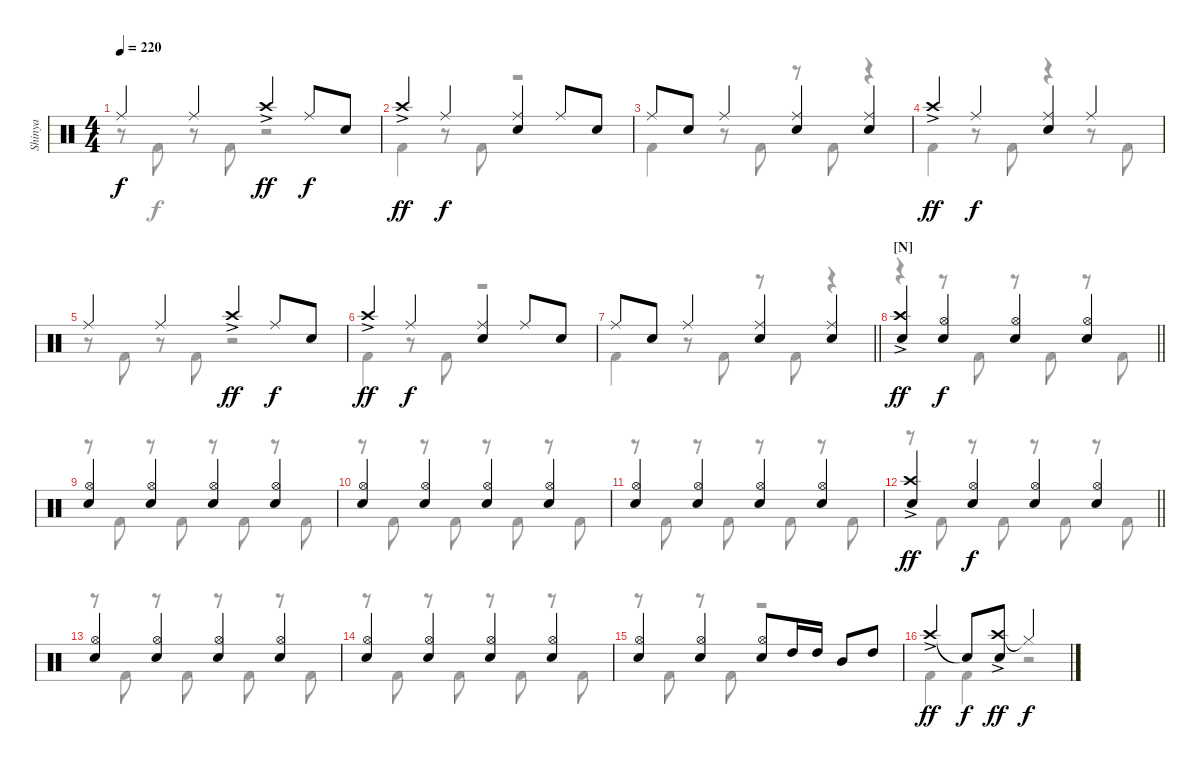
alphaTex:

\track ("Shinya" "Shinya") {instrument percussion}
\staff {score}
\articulation defaults
\voice
\ts (4 4)
\tempo 220
\clef neutral
\ks c "Ride (middle)".4{dy f} "Ride (middle)".4 "Crash high (hit)"{ac}.4{dy ff} "Ride (middle)".8{dy f} "Snare (hit) 2".8
|
"Crash high (hit)"{ac}.4{dy ff} "Ride (middle)".4{dy f} ("Ride (middle)" "Snare (hit) 2").4 "Ride (middle)".8 "Snare (hit) 2".8 |
"Ride (middle)".8 "Snare (hit) 2".8 "Ride (middle)".4 ("Ride (middle)" "Snare (hit) 2").4 ("Ride (middle)" "Snare (hit) 2").4 |
"Crash high (hit)"{ac}.4{dy ff} "Ride (middle)".4{dy f} ("Ride (middle)" "Snare (hit) 2").4 "Ride (middle)".4 |
"Ride (middle)".4 "Ride (middle)".4 "Crash high (hit)"{ac}.4{dy ff} "Ride (middle)".8{dy f} "Snare (hit) 2".8 |
"Crash high (hit)"{ac}.4{dy ff} "Ride (middle)".4{dy f} ("Ride (middle)" "Snare (hit) 2").4 "Ride (middle)".8 "Snare (hit) 2".8 |
\barLineRight lightlight "Ride (middle)".8 "Snare (hit) 2".8 "Ride (middle)".4
("Ride (middle)" "Snare (hit) 2").4 ("Ride (middle)" "Snare (hit) 2").4 |
\section ("" "[N]")
\barLineRight lightlight
("Crash high (hit)"{ac} "Snare (hit) 2").4{dy ff} ("Hi-Hat (open)" "Snare (hit) 2").4{dy f} ("Hi-Hat (open)" "Snare (hit) 2").4 ("Hi-Hat (open)" "Snare (hit) 2").4 |
\section ("" "")
("Hi-Hat (open)" "Snare (hit) 2").4 ("Hi-Hat (open)" "Snare (hit) 2").4 ("Hi-Hat (open)" "Snare (hit) 2").4 ("Hi-Hat (open)" "Snare (hit) 2").4 |
("Hi-Hat (open)" "Snare (hit) 2").4 ("Hi-Hat (open)" "Snare (hit) 2").4 ("Hi-Hat (open)" "Snare (hit) 2").4 ("Hi-Hat (open)" "Snare (hit) 2").4 |
("Hi-Hat (open)" "Snare (hit) 2").4 ("Hi-Hat (open)" "Snare (hit) 2").4 ("Hi-Hat (open)" "Snare (hit) 2").4 ("Hi-Hat (open)" "Snare (hit) 2").4 |
\barLineRight lightlight
("Crash high (hit)"{ac} "Snare (hit) 2").4{dy ff} ("Hi-Hat (open)" "Snare (hit) 2").4{dy f} ("Hi-Hat (open)" "Snare (hit) 2").4 ("Hi-Hat (open)" "Snare (hit) 2").4 |
("Hi-Hat (open)" "Snare (hit) 2").4 ("Hi-Hat (open)" "Snare (hit) 2").4 ("Hi-Hat (open)" "Snare (hit) 2").4 ("Hi-Hat (open)" "Snare (hit) 2").4 |
("Hi-Hat (open)" "Snare (hit) 2").4 ("Hi-Hat (open)" "Snare (hit) 2").4 ("Hi-Hat (open)" "Snare (hit) 2").4 ("Hi-Hat (open)" "Snare (hit) 2").4 |
("Hi-Hat (open)" "Snare (hit) 2").4 ("Hi-Hat (open)" "Snare (hit) 2").4 ("Hi-Hat (open)" "Snare (hit) 2").8 "High Tom (hit)".16 "High Tom (hit)".16 "Mid Tom (hit)".8 "High Tom (hit)".8 |
"Crash high (hit)"{ac}.4{dy ff} "Snare (hit)"{t}.8{dy f} ("Crash high (hit)"{ac} "Snare (hit) 2").8{dy ff} "Hi-Hat (closed)"{t}.2{dy f}
\voice
\clef neutral
\ottava regular
\simile none
\ks c
r.8{dy f} "Kick (hit) 2".8 r.8 "Kick (hit) 2".8 r.2 |
"Kick (hit) 2".4 r.8 "Kick (hit) 2".8 r.2 |
"Kick (hit) 2".4 r.8 "Kick (hit) 2".8 r.8 "Kick (hit) 2".8 r.4 |
"Kick (hit) 2".4 r.8 "Kick (hit) 2".8 r.4 r.8 "Kick (hit) 2".8 |
r.8 "Kick (hit) 2".8 r.8 "Kick (hit) 2".8 r.2 |
"Kick (hit) 2".4 r.8 "Kick (hit) 2".8 r.2 |
\barLineRight lightlight "Kick (hit) 2".4
r.8 "Kick (hit) 2".8 r.8 "Kick (hit) 2".8 r.4 |
\barLineRight lightlight
r.4 r.8 "Kick (hit) 2".8 r.8 "Kick (hit) 2".8 r.8 "Kick (hit) 2".8 |
r.8 "Kick (hit) 2".8 r.8 "Kick (hit) 2".8 r.8 "Kick (hit) 2".8 r.8 "Kick (hit) 2".8 |
r.8 "Kick (hit) 2".8 r.8 "Kick (hit) 2".8 r.8 "Kick (hit) 2".8 r.8 "Kick (hit) 2".8 |
r.8 "Kick (hit) 2".8 r.8 "Kick (hit) 2".8 r.8 "Kick (hit) 2".8 r.8 "Kick (hit) 2".8 |
\barLineRight lightlight
r.8 "Kick (hit) 2".8 r.8 "Kick (hit) 2".8 r.8 "Kick (hit) 2".8 r.8 "Kick (hit) 2".8 |
r.8 "Kick (hit) 2".8 r.8 "Kick (hit) 2".8 r.8 "Kick (hit) 2".8 r.8 "Kick (hit) 2".8 |
r.8 "Kick (hit) 2".8 r.8 "Kick (hit) 2".8 r.8 "Kick (hit) 2".8 r.8 "Kick (hit) 2".8 |
r.8 "Kick (hit) 2".8 r.8 "Kick (hit) 2".8 r.2 |
"Kick (hit) 2".4 "Kick (hit) 2".4 r.2
